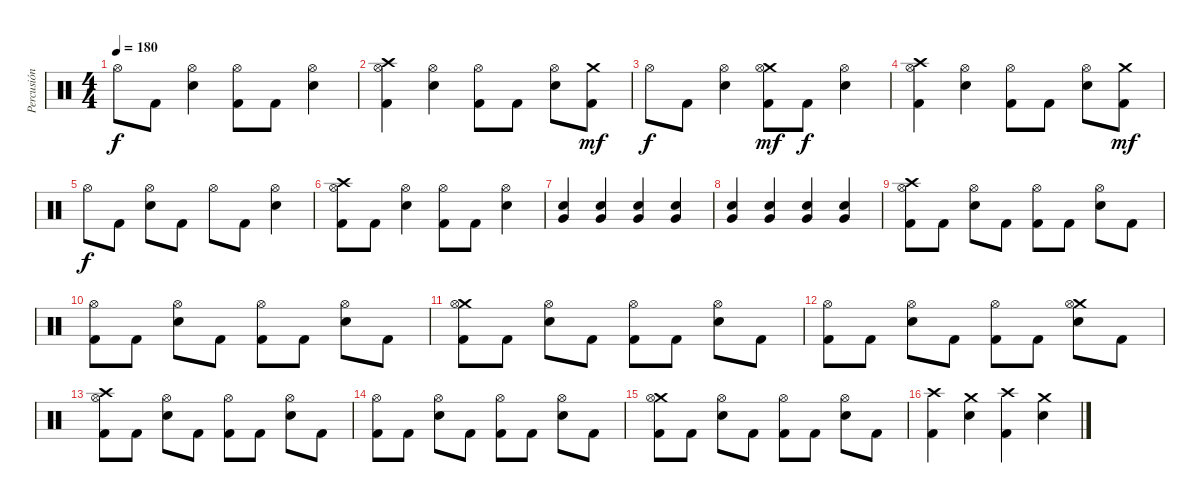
\track ("Percusión" "Percusión") {instrument percussion}
\staff {score}
\articulation defaults
\ts (4 4)
\tempo 180
\clef neutral
\ks c "Hi-Hat (open)".8{dy f} "Kick (hit) 2".8
("Hi-Hat (open)" "Electric Snare (hit)").4 ("Hi-Hat (open)" "Kick (hit) 2").8 "Kick (hit) 2".8 ("Hi-Hat (open)" "Electric Snare (hit)").4 |
("Crash high (hit)" "Hi-Hat (open)" "Kick (hit) 2").4 ("Hi-Hat (open)" "Electric Snare (hit)").4 ("Hi-Hat (open)" "Kick (hit) 2").8 "Kick (hit) 2".8 ("Hi-Hat (open)" "Electric Snare (hit)").8 ("Crash medium (hit)" "Kick (hit) 2").8{dy mf} |
"Hi-Hat (open)".8{dy f} "Kick (hit) 2".8 ("Hi-Hat (open)" "Electric Snare (hit)").4 ("Crash medium (hit)" "Hi-Hat (open)" "Kick (hit) 2").8{dy mf} "Kick (hit) 2".8{dy f} ("Hi-Hat (open)" "Electric Snare (hit)").4 |
("Crash high (hit)" "Hi-Hat (open)" "Kick (hit) 2").4 ("Hi-Hat (open)" "Electric Snare (hit)").4 ("Hi-Hat (open)" "Kick (hit) 2").8 "Kick (hit) 2".8 ("Hi-Hat (open)" "Electric Snare (hit)").8 ("Crash medium (hit)" "Kick (hit) 2").8{dy mf} |
"Hi-Hat (open)".8{dy f} "Kick (hit) 2".8 ("Hi-Hat (open)" "Electric Snare (hit)").8 "Kick (hit) 2".8 "Hi-Hat (open)".8 "Kick (hit) 2".8 ("Hi-Hat (open)" "Electric Snare (hit)").4 |
("Crash high (hit)" "Hi-Hat (open)" "Kick (hit) 2").8 "Kick (hit) 2".8 ("Hi-Hat (open)" "Electric Snare (hit)").4 ("Hi-Hat (open)" "Kick (hit) 2").8 "Kick (hit) 2".8 ("Hi-Hat (open)" "Electric Snare (hit)").4 |
("Very Low Tom (hit)" "Electric Snare (hit)").4 ("Very Low Tom (hit)" "Electric Snare (hit)").4 ("Very Low Tom (hit)" "Electric Snare (hit)").4 ("Very Low Tom (hit)" "Electric Snare (hit)").4 |
("Very Low Tom (hit)" "Electric Snare (hit)").4 ("Very Low Tom (hit)" "Electric Snare (hit)").4 ("Very Low Tom (hit)" "Electric Snare (hit)").4 ("Very Low Tom (hit)" "Electric Snare (hit)").4 |
("Crash high (hit)" "Hi-Hat (open)" "Kick (hit) 2").8 "Kick (hit) 2".8 ("Hi-Hat (open)" "Electric Snare (hit)").8 "Kick (hit) 2".8 ("Hi-Hat (open)" "Kick (hit) 2").8 "Kick (hit) 2".8 ("Hi-Hat (open)" "Electric Snare (hit)").8 "Kick (hit) 2".8 |
("Hi-Hat (open)" "Kick (hit) 2").8 "Kick (hit) 2".8 ("Hi-Hat (open)" "Electric Snare (hit)").8 "Kick (hit) 2".8 ("Hi-Hat (open)" "Kick (hit) 2").8 "Kick (hit) 2".8 ("Hi-Hat (open)" "Electric Snare (hit)").8 "Kick (hit) 2".8 |
("Crash medium (hit)" "Hi-Hat (open)" "Kick (hit) 2").8 "Kick (hit) 2".8 ("Hi-Hat (open)" "Electric Snare (hit)").8 "Kick (hit) 2".8 ("Hi-Hat (open)" "Kick (hit) 2").8 "Kick (hit) 2".8 ("Hi-Hat (open)" "Electric Snare (hit)").8 "Kick (hit) 2".8 |
("Hi-Hat (open)" "Kick (hit) 2").8 "Kick (hit) 2".8 ("Hi-Hat (open)" "Electric Snare (hit)").8 "Kick (hit) 2".8 ("Hi-Hat (open)" "Kick (hit) 2").8 "Kick (hit) 2".8 ("Crash medium (hit)" "Hi-Hat (open)" "Electric Snare (hit)").8 "Kick (hit) 2".8 |
("Crash high (hit)" "Hi-Hat (open)" "Kick (hit) 2").8 "Kick (hit) 2".8 ("Hi-Hat (open)" "Electric Snare (hit)").8 "Kick (hit) 2".8 ("Hi-Hat (open)" "Kick (hit) 2").8 "Kick (hit) 2".8 ("Hi-Hat (open)" "Electric Snare (hit)").8 "Kick (hit) 2".8 |
("Hi-Hat (open)" "Kick (hit) 2").8 "Kick (hit) 2".8 ("Hi-Hat (open)" "Electric Snare (hit)").8 "Kick (hit) 2".8 ("Hi-Hat (open)" "Kick (hit) 2").8 "Kick (hit) 2".8 ("Hi-Hat (open)" "Electric Snare (hit)").8 "Kick (hit) 2".8 |
("Crash medium (hit)" "Hi-Hat (open)" "Kick (hit) 2").8 "Kick (hit) 2".8 ("Hi-Hat (open)" "Electric Snare (hit)").8 "Kick (hit) 2".8 ("Hi-Hat (open)" "Kick (hit) 2").8 "Kick (hit) 2".8 ("Hi-Hat (open)" "Electric Snare (hit)").8 "Kick (hit) 2".8 |
("Crash high (hit)" "Kick (hit) 2").4 ("Crash medium (hit)" "Electric Snare (hit)").4 ("Crash high (hit)" "Kick (hit) 2").4 ("Crash medium (hit)" "Electric Snare (hit)").4
